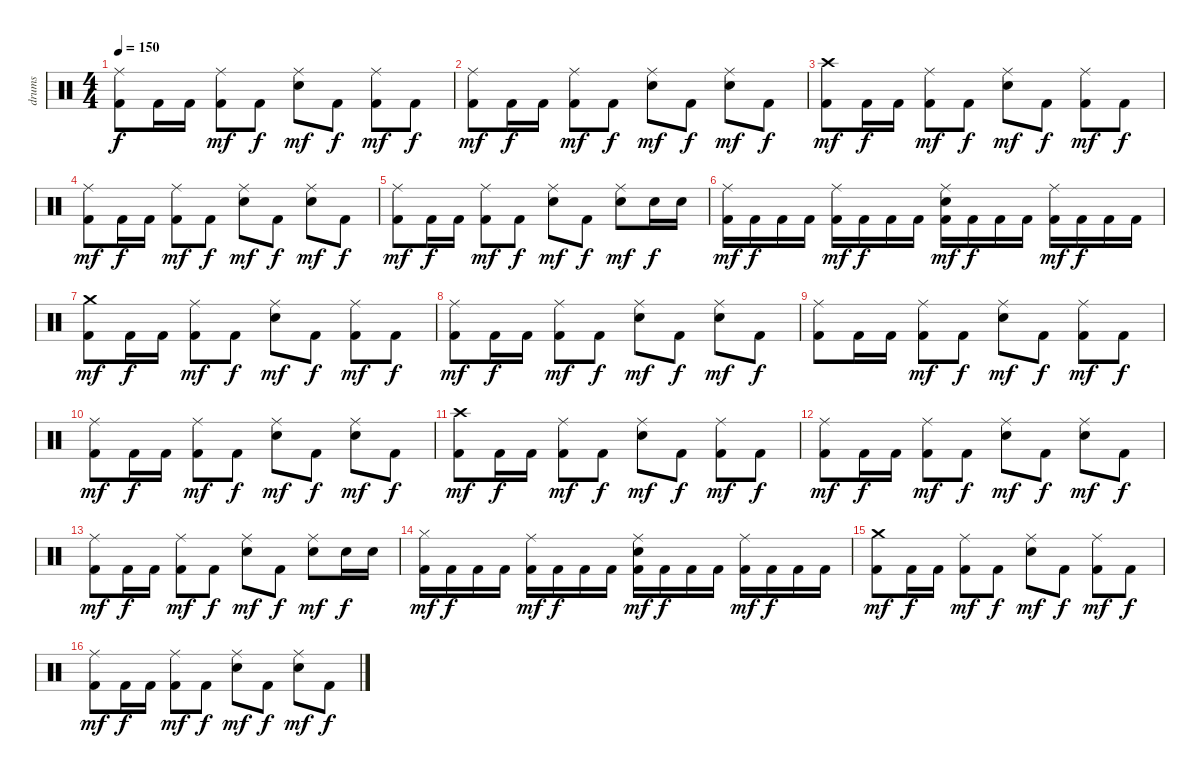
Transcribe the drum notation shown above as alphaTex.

\track ("drums" "drums") {instrument percussion}
\staff {score}
\articulation defaults
\ts (4 4)
\tempo 150
\clef neutral
\ks c
("Ride (middle)" "Kick (hit) 2").8{dy f} "Kick (hit) 2".16 "Kick (hit) 2".16 ("Ride (middle)" "Kick (hit) 2").8{dy mf} "Kick (hit) 2".8{dy f} ("Ride (middle)" "Snare (hit) 2").8{dy mf} "Kick (hit) 2".8{dy f} ("Ride (middle)" "Kick (hit) 2").8{dy mf} "Kick (hit) 2".8{dy f} |
("Ride (middle)" "Kick (hit) 2").8{dy mf} "Kick (hit) 2".16{dy f} "Kick (hit) 2".16 ("Ride (middle)" "Kick (hit) 2").8{dy mf} "Kick (hit) 2".8{dy f} ("Ride (middle)" "Snare (hit) 2").8{dy mf} "Kick (hit) 2".8{dy f} ("Ride (middle)" "Snare (hit) 2").8{dy mf} "Kick (hit) 2".8{dy f} |
("Crash high (hit)" "Kick (hit) 2").8{dy mf} "Kick (hit) 2".16{dy f} "Kick (hit) 2".16 ("Ride (middle)" "Kick (hit) 2").8{dy mf} "Kick (hit) 2".8{dy f} ("Ride (middle)" "Snare (hit) 2").8{dy mf} "Kick (hit) 2".8{dy f} ("Ride (middle)" "Kick (hit) 2").8{dy mf} "Kick (hit) 2".8{dy f} |
("Ride (middle)" "Kick (hit) 2").8{dy mf} "Kick (hit) 2".16{dy f} "Kick (hit) 2".16 ("Ride (middle)" "Kick (hit) 2").8{dy mf} "Kick (hit) 2".8{dy f} ("Ride (middle)" "Snare (hit) 2").8{dy mf} "Kick (hit) 2".8{dy f} ("Ride (middle)" "Snare (hit) 2").8{dy mf} "Kick (hit) 2".8{dy f} |
("Ride (middle)" "Kick (hit) 2").8{dy mf} "Kick (hit) 2".16{dy f} "Kick (hit) 2".16 ("Ride (middle)" "Kick (hit) 2").8{dy mf} "Kick (hit) 2".8{dy f} ("Ride (middle)" "Snare (hit) 2").8{dy mf} "Kick (hit) 2".8{dy f} ("Ride (middle)" "Snare (hit) 2").8{dy mf} "Snare (hit) 2".16{dy f} "Snare (hit) 2".16 |
("Ride (middle)" "Kick (hit) 2").16{dy mf} "Kick (hit) 2".16{dy f} "Kick (hit) 2".16 "Kick (hit) 2".16 ("Ride (middle)" "Kick (hit) 2").16{dy mf} "Kick (hit) 2".16{dy f} "Kick (hit) 2".16 "Kick (hit) 2".16 ("Ride (middle)" "Snare (hit) 2" "Kick (hit) 2").16{dy mf} "Kick (hit) 2".16{dy f} "Kick (hit) 2".16 "Kick (hit) 2".16 ("Ride (middle)" "Kick (hit) 2").16{dy mf} "Kick (hit) 2".16{dy f} "Kick (hit) 2".16 "Kick (hit) 2".16 |
("Crash medium (hit)" "Kick (hit) 2").8{dy mf} "Kick (hit) 2".16{dy f} "Kick (hit) 2".16 ("Ride (middle)" "Kick (hit) 2").8{dy mf} "Kick (hit) 2".8{dy f} ("Ride (middle)" "Snare (hit) 2").8{dy mf} "Kick (hit) 2".8{dy f} ("Ride (middle)" "Kick (hit) 2").8{dy mf} "Kick (hit) 2".8{dy f} |
("Ride (middle)" "Kick (hit) 2").8{dy mf} "Kick (hit) 2".16{dy f} "Kick (hit) 2".16 ("Ride (middle)" "Kick (hit) 2").8{dy mf} "Kick (hit) 2".8{dy f} ("Ride (middle)" "Snare (hit) 2").8{dy mf} "Kick (hit) 2".8{dy f} ("Ride (middle)" "Snare (hit) 2").8{dy mf} "Kick (hit) 2".8{dy f} |
("Ride (middle)" "Kick (hit) 2").8 "Kick (hit) 2".16 "Kick (hit) 2".16 ("Ride (middle)" "Kick (hit) 2").8{dy mf} "Kick (hit) 2".8{dy f} ("Ride (middle)" "Snare (hit) 2").8{dy mf} "Kick (hit) 2".8{dy f} ("Ride (middle)" "Kick (hit) 2").8{dy mf} "Kick (hit) 2".8{dy f} |
("Ride (middle)" "Kick (hit) 2").8{dy mf} "Kick (hit) 2".16{dy f} "Kick (hit) 2".16 ("Ride (middle)" "Kick (hit) 2").8{dy mf} "Kick (hit) 2".8{dy f} ("Ride (middle)" "Snare (hit) 2").8{dy mf} "Kick (hit) 2".8{dy f} ("Ride (middle)" "Snare (hit) 2").8{dy mf} "Kick (hit) 2".8{dy f} |
("Crash high (hit)" "Kick (hit) 2").8{dy mf} "Kick (hit) 2".16{dy f} "Kick (hit) 2".16 ("Ride (middle)" "Kick (hit) 2").8{dy mf} "Kick (hit) 2".8{dy f} ("Ride (middle)" "Snare (hit) 2").8{dy mf} "Kick (hit) 2".8{dy f} ("Ride (middle)" "Kick (hit) 2").8{dy mf} "Kick (hit) 2".8{dy f} |
("Ride (middle)" "Kick (hit) 2").8{dy mf} "Kick (hit) 2".16{dy f} "Kick (hit) 2".16 ("Ride (middle)" "Kick (hit) 2").8{dy mf} "Kick (hit) 2".8{dy f} ("Ride (middle)" "Snare (hit) 2").8{dy mf} "Kick (hit) 2".8{dy f} ("Ride (middle)" "Snare (hit) 2").8{dy mf} "Kick (hit) 2".8{dy f} |
("Ride (middle)" "Kick (hit) 2").8{dy mf} "Kick (hit) 2".16{dy f} "Kick (hit) 2".16 ("Ride (middle)" "Kick (hit) 2").8{dy mf} "Kick (hit) 2".8{dy f} ("Ride (middle)" "Snare (hit) 2").8{dy mf} "Kick (hit) 2".8{dy f} ("Ride (middle)" "Snare (hit) 2").8{dy mf} "Snare (hit) 2".16{dy f} "Snare (hit) 2".16 |
("Hi-Hat (closed)" "Kick (hit) 2").16{dy mf} "Kick (hit) 2".16{dy f} "Kick (hit) 2".16 "Kick (hit) 2".16 ("Ride (middle)" "Kick (hit) 2").16{dy mf} "Kick (hit) 2".16{dy f} "Kick (hit) 2".16 "Kick (hit) 2".16 ("Ride (middle)" "Snare (hit) 2" "Kick (hit) 2").16{dy mf} "Kick (hit) 2".16{dy f} "Kick (hit) 2".16 "Kick (hit) 2".16 ("Ride (middle)" "Kick (hit) 2").16{dy mf} "Kick (hit) 2".16{dy f} "Kick (hit) 2".16 "Kick (hit) 2".16 |
("Crash medium (hit)" "Kick (hit) 2").8{dy mf} "Kick (hit) 2".16{dy f} "Kick (hit) 2".16 ("Ride (middle)" "Kick (hit) 2").8{dy mf} "Kick (hit) 2".8{dy f} ("Ride (middle)" "Snare (hit) 2").8{dy mf} "Kick (hit) 2".8{dy f} ("Ride (middle)" "Kick (hit) 2").8{dy mf} "Kick (hit) 2".8{dy f} |
("Ride (middle)" "Kick (hit) 2").8{dy mf} "Kick (hit) 2".16{dy f} "Kick (hit) 2".16 ("Ride (middle)" "Kick (hit) 2").8{dy mf} "Kick (hit) 2".8{dy f} ("Ride (middle)" "Snare (hit) 2").8{dy mf} "Kick (hit) 2".8{dy f} ("Ride (middle)" "Snare (hit) 2").8{dy mf} "Kick (hit) 2".8{dy f}
